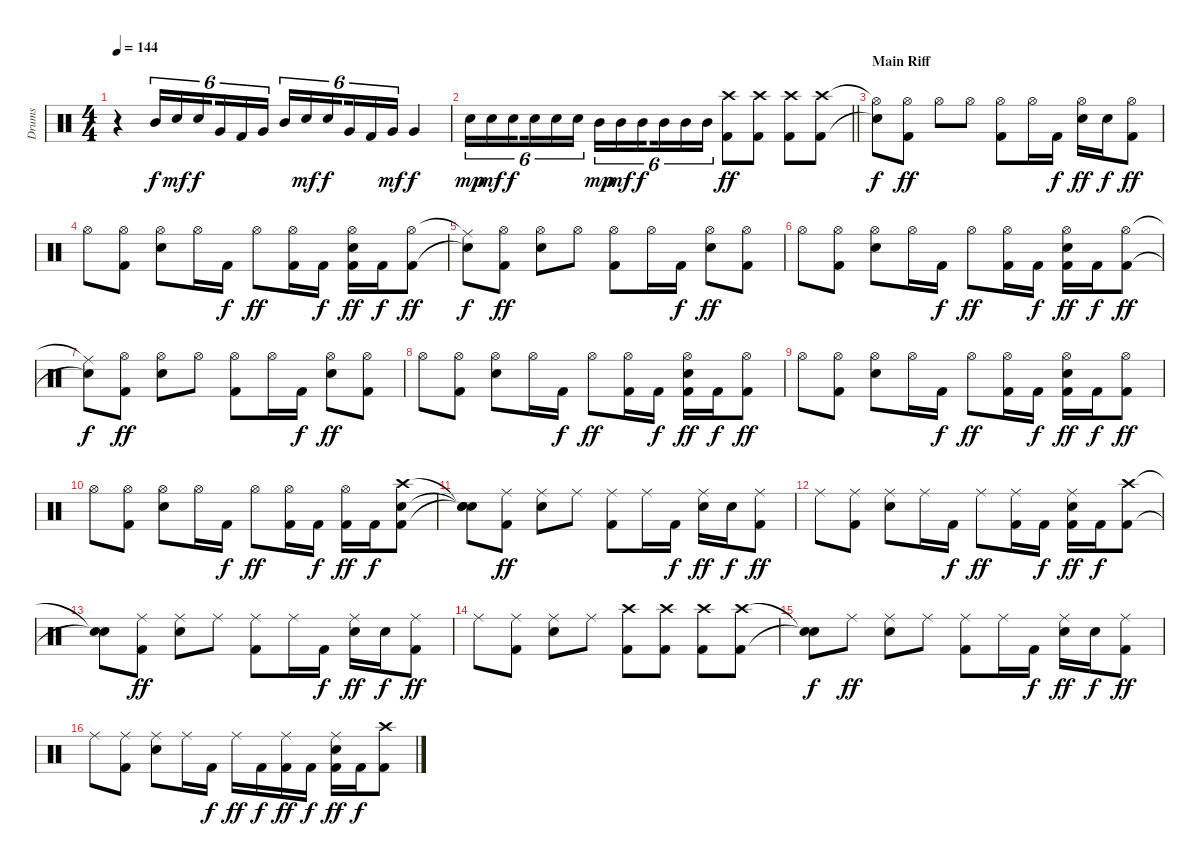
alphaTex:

\track ("Drums" "Drums") {instrument percussion}
\staff {score}
\articulation defaults
\ts (4 4)
\tempo 144
\clef neutral
\ks c
r.4{dy f} "Mid Tom (hit)".16{tu (6 4)} "Snare (hit) 2".16{tu (6 4) dy mf} "Snare (hit) 2".16{tu (6 4) dy f beam splitsecondary} "Very Low Tom (hit)".16{tu (6 4)} "Kick (hit) 2".16{tu (6 4)} "Very Low Tom (hit)".16{tu (6 4)} "Mid Tom (hit)".16{tu (6 4)} "Snare (hit) 2".16{tu (6 4) dy mf} "Snare (hit) 2".16{tu (6 4) dy f beam splitsecondary} "Very Low Tom (hit)".16{tu (6 4)} "Kick (hit) 2".16{tu (6 4)} "Very Low Tom (hit)".16{tu (6 4) dy mf} "Very Low Tom (hit)".4{dy f} |
\barLineRight lightlight "Snare (hit) 2".16{tu (6 4) dy mp} "Snare (hit) 2".16{tu (6 4) dy mf} "Snare (hit) 2".16{tu (6 4) dy f beam splitsecondary} "Snare (hit) 2".16{tu (6 4)} "Snare (hit) 2".16{tu (6 4)} "Snare (hit) 2".16{tu (6 4)} "Mid Tom (hit)".16{tu (6 4) dy mp} "Mid Tom (hit)".16{tu (6 4) dy mf} "Mid Tom (hit)".16{tu (6 4) dy f beam splitsecondary} "Mid Tom (hit)".16{tu (6 4)} "Mid Tom (hit)".16{tu (6 4)} "Mid Tom (hit)".16{tu (6 4)}
("Crash high (hit)" "Kick (hit) 2").8{dy ff} ("Crash high (hit)" "Kick (hit) 2").8 ("Crash high (hit)" "Kick (hit) 2").8 ("Crash high (hit)" "Kick (hit) 2").8 |
\section ("" "Main Riff")
("Hi-Hat (open)"{t} "Snare (hit)"{t}).8{dy f} ("Hi-Hat (open)" "Kick (hit) 2").8{dy ff} "Hi-Hat (open)".8 "Hi-Hat (open)".8 ("Hi-Hat (open)" "Kick (hit) 2").8 "Hi-Hat (open)".16 "Kick (hit) 2".16{dy f} ("Hi-Hat (open)" "Snare (hit) 2").16{dy ff} "Snare (hit) 2".16{dy f} ("Hi-Hat (open)" "Kick (hit) 2").8{dy ff} |
"Hi-Hat (open)".8 ("Hi-Hat (open)" "Kick (hit) 2").8 ("Hi-Hat (open)" "Snare (hit) 2").8 "Hi-Hat (open)".16 "Kick (hit) 2".16{dy f} "Hi-Hat (open)".8{dy ff} ("Hi-Hat (open)" "Kick (hit) 2").16 "Kick (hit) 2".16{dy f} ("Hi-Hat (open)" "Snare (hit) 2" "Kick (hit) 2").16{dy ff} "Kick (hit) 2".16{dy f} ("Hi-Hat (open)" "Kick (hit) 2").8{dy ff} |
("Ride (middle)"{t} "Snare (hit)"{t}).8{dy f} ("Hi-Hat (open)" "Kick (hit) 2").8{dy ff} ("Hi-Hat (open)" "Snare (hit) 2").8 "Hi-Hat (open)".8 ("Hi-Hat (open)" "Kick (hit) 2").8 "Hi-Hat (open)".16 "Kick (hit) 2".16{dy f} ("Hi-Hat (open)" "Snare (hit) 2").8{dy ff} ("Hi-Hat (open)" "Kick (hit) 2").8 |
"Hi-Hat (open)".8 ("Hi-Hat (open)" "Kick (hit) 2").8 ("Hi-Hat (open)" "Snare (hit) 2").8 "Hi-Hat (open)".16 "Kick (hit) 2".16{dy f} "Hi-Hat (open)".8{dy ff} ("Hi-Hat (open)" "Kick (hit) 2").16 "Kick (hit) 2".16{dy f} ("Hi-Hat (open)" "Snare (hit) 2" "Kick (hit) 2").16{dy ff} "Kick (hit) 2".16{dy f} ("Hi-Hat (open)" "Kick (hit) 2").8{dy ff} |
("Ride (middle)"{t} "Snare (hit)"{t}).8{dy f} ("Hi-Hat (open)" "Kick (hit) 2").8{dy ff} ("Hi-Hat (open)" "Snare (hit) 2").8 "Hi-Hat (open)".8 ("Hi-Hat (open)" "Kick (hit) 2").8 "Hi-Hat (open)".16 "Kick (hit) 2".16{dy f} ("Hi-Hat (open)" "Snare (hit) 2").8{dy ff} ("Hi-Hat (open)" "Kick (hit) 2").8 |
"Hi-Hat (open)".8 ("Hi-Hat (open)" "Kick (hit) 2").8 ("Hi-Hat (open)" "Snare (hit) 2").8 "Hi-Hat (open)".16 "Kick (hit) 2".16{dy f} "Hi-Hat (open)".8{dy ff} ("Hi-Hat (open)" "Kick (hit) 2").16 "Kick (hit) 2".16{dy f} ("Hi-Hat (open)" "Snare (hit) 2" "Kick (hit) 2").16{dy ff} "Kick (hit) 2".16{dy f} ("Hi-Hat (open)" "Kick (hit) 2").8{dy ff} |
"Hi-Hat (open)".8 ("Hi-Hat (open)" "Kick (hit) 2").8 ("Hi-Hat (open)" "Snare (hit) 2").8 "Hi-Hat (open)".16 "Kick (hit) 2".16{dy f} "Hi-Hat (open)".8{dy ff} ("Hi-Hat (open)" "Kick (hit) 2").16 "Kick (hit) 2".16{dy f} ("Hi-Hat (open)" "Snare (hit) 2" "Kick (hit) 2").16{dy ff} "Kick (hit) 2".16{dy f} ("Hi-Hat (open)" "Kick (hit) 2").8{dy ff} |
"Hi-Hat (open)".8 ("Hi-Hat (open)" "Kick (hit) 2").8 ("Hi-Hat (open)" "Snare (hit) 2").8 "Hi-Hat (open)".16 "Kick (hit) 2".16{dy f} "Hi-Hat (open)".8{dy ff} ("Hi-Hat (open)" "Kick (hit) 2").16 "Kick (hit) 2".16{dy f} ("Hi-Hat (open)" "Kick (hit) 2").16{dy ff} "Kick (hit) 2".16{dy f} ("Crash high (hit)" "Snare (hit) 2" "Kick (hit) 2").8 |
("Snare (hit)"{t} "Snare (hit)"{t} "Snare (hit)"{t}).8 ("Ride (middle)" "Kick (hit) 2").8{dy ff} ("Ride (middle)" "Snare (hit) 2").8 "Ride (middle)".8 ("Ride (middle)" "Kick (hit) 2").8 "Ride (middle)".16 "Kick (hit) 2".16{dy f} ("Ride (middle)" "Snare (hit) 2").16{dy ff} "Snare (hit) 2".16{dy f} ("Ride (middle)" "Kick (hit) 2").8{dy ff} |
"Ride (middle)".8 ("Ride (middle)" "Kick (hit) 2").8 ("Ride (middle)" "Snare (hit) 2").8 "Ride (middle)".16 "Kick (hit) 2".16{dy f} "Ride (middle)".8{dy ff} ("Ride (middle)" "Kick (hit) 2").16 "Kick (hit) 2".16{dy f} ("Ride (middle)" "Snare (hit) 2" "Kick (hit) 2").16{dy ff} "Kick (hit) 2".16{dy f} ("Crash high (hit)" "Kick (hit) 2").8 |
("Snare (hit)"{t} "Snare (hit)"{t}).8 ("Ride (middle)" "Kick (hit) 2").8{dy ff} ("Ride (middle)" "Snare (hit) 2").8 "Ride (middle)".8 ("Ride (middle)" "Kick (hit) 2").8 "Ride (middle)".16 "Kick (hit) 2".16{dy f} ("Ride (middle)" "Snare (hit) 2").16{dy ff} "Snare (hit) 2".16{dy f} ("Ride (middle)" "Kick (hit) 2").8{dy ff} |
"Ride (middle)".8 ("Ride (middle)" "Kick (hit) 2").8 ("Ride (middle)" "Snare (hit) 2").8 "Ride (middle)".8 ("Crash high (hit)" "Kick (hit) 2").8 ("Crash high (hit)" "Kick (hit) 2").8 ("Crash high (hit)" "Kick (hit) 2").8 ("Crash high (hit)" "Kick (hit) 2").8 |
("Snare (hit)"{t} "Snare (hit)"{t}).8{dy f} "Ride (middle)".8{dy ff} ("Ride (middle)" "Snare (hit) 2").8 "Ride (middle)".8 ("Ride (middle)" "Kick (hit) 2").8 "Ride (middle)".16 "Kick (hit) 2".16{dy f} ("Ride (middle)" "Snare (hit) 2").16{dy ff} "Snare (hit) 2".16{dy f} ("Ride (middle)" "Kick (hit) 2").8{dy ff} |
"Ride (middle)".8 ("Ride (middle)" "Kick (hit) 2").8 ("Ride (middle)" "Snare (hit) 2").8 "Ride (middle)".16 "Kick (hit) 2".16{dy f} "Ride (middle)".16{dy ff} "Kick (hit) 2".16{dy f} ("Ride (middle)" "Kick (hit) 2").16{dy ff} "Kick (hit) 2".16{dy f} ("Ride (middle)" "Snare (hit) 2" "Kick (hit) 2").16{dy ff} "Kick (hit) 2".16{dy f} ("Crash high (hit)" "Kick (hit) 2").8
